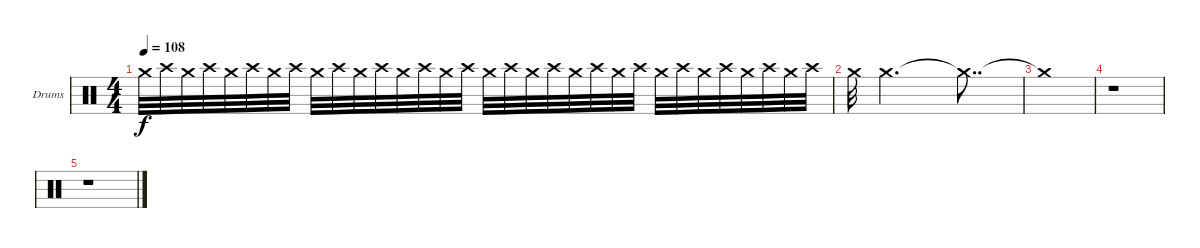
\defaultSystemsLayout 4
\bracketExtendMode groupsimilarinstruments
\firstSystemTrackNameOrientation horizontal
\otherSystemsTrackNameOrientation horizontal
\track ("Drumkit " "Drums") {instrument percussion}
\staff {score}
\articulation defaults
\ts (4 4)
\tempo 108
\clef neutral
\ks c "Crash medium (hit)".32{dy f} "Crash high (hit)".32 "Crash medium (hit)".32 "Crash high (hit)".32 "Crash medium (hit)".32 "Crash high (hit)".32 "Crash medium (hit)".32 "Crash high (hit)".32 "Crash medium (hit)".32 "Crash high (hit)".32 "Crash medium (hit)".32 "Crash high (hit)".32 "Crash medium (hit)".32 "Crash high (hit)".32 "Crash medium (hit)".32 "Crash high (hit)".32 "Crash medium (hit)".32 "Crash high (hit)".32 "Crash medium (hit)".32 "Crash high (hit)".32 "Crash medium (hit)".32 "Crash high (hit)".32 "Crash medium (hit)".32 "Crash high (hit)".32 "Crash medium (hit)".32 "Crash high (hit)".32 "Crash medium (hit)".32 "Crash high (hit)".32 "Crash medium (hit)".32 "Crash high (hit)".32 "Crash medium (hit)".32 "Crash high (hit)".32
|
"Crash medium (hit)".32 "Crash medium (hit)".2{d} "Crash medium (hit)"{t}.8{dd} |
"Crash medium (hit)"{t}.1 |
r.1 |
r.1
